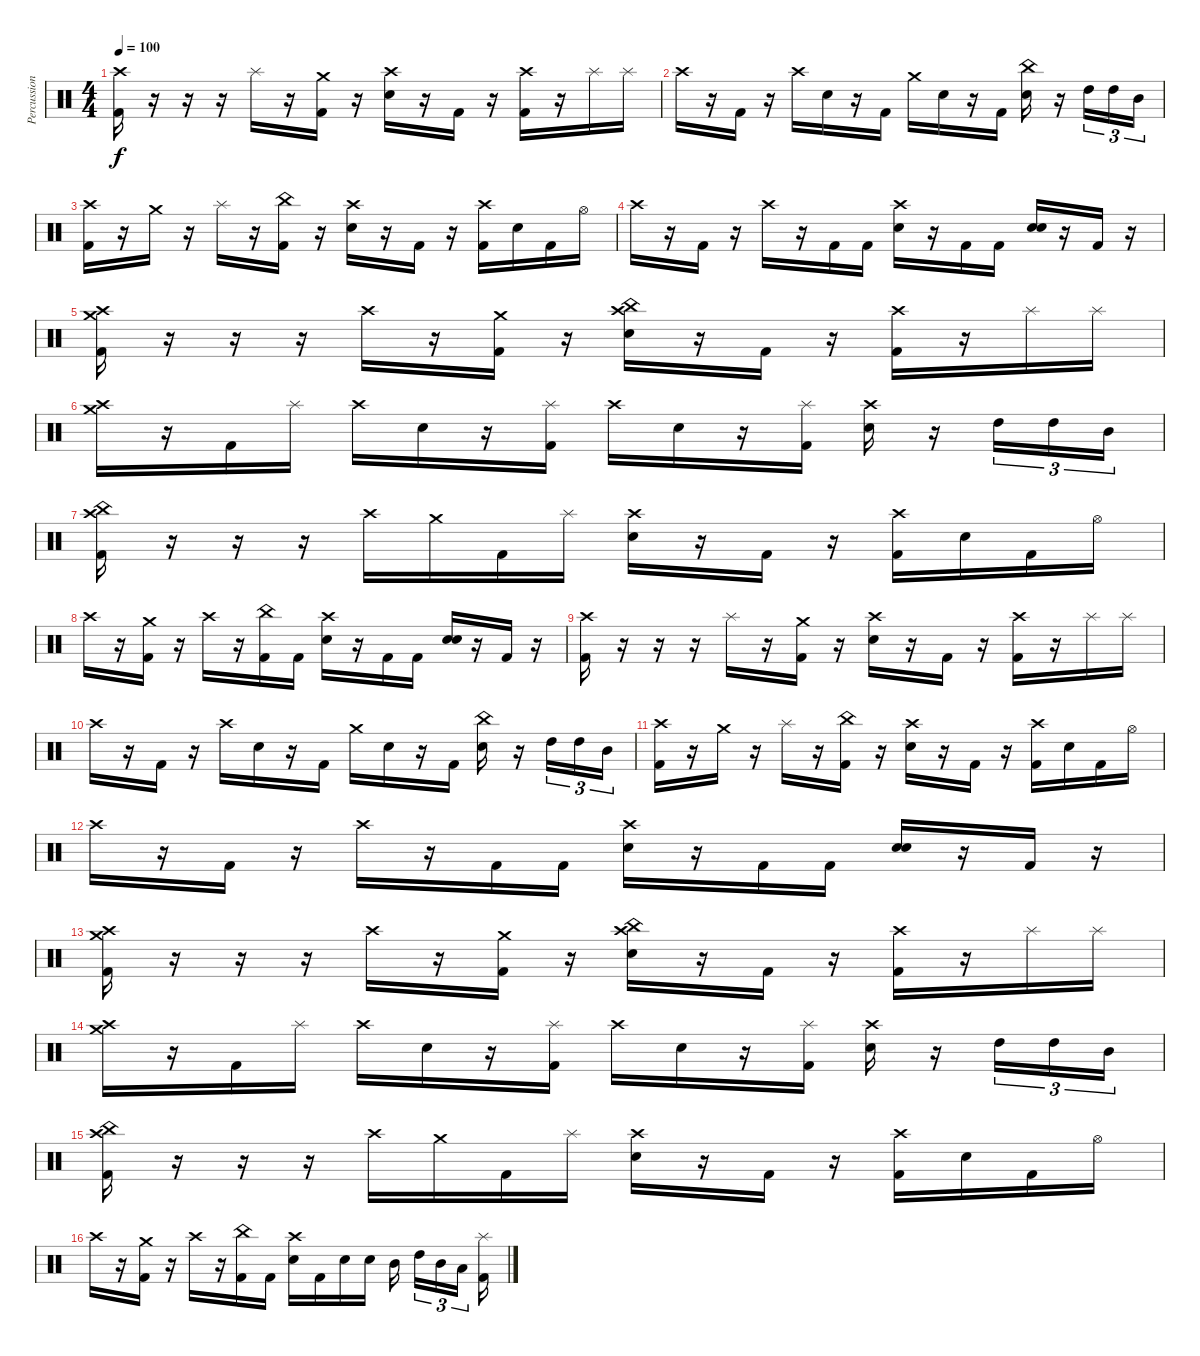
\track ("Percussion" "Percussion") {instrument percussion}
\staff {score}
\articulation defaults
\ts (4 4)
\tempo 100
\clef neutral
\ks c
("Crash high (hit)" "Kick (hit) 2").16{dy f} r.16 r.16 r.16 "Splash (hit)".16 r.16 ("Crash medium (hit)" "Kick (hit) 2").16 r.16 ("Crash high (hit)" "Electric Snare (hit)").16 r.16 "Kick (hit) 2".16 r.16 ("Crash high (hit)" "Kick (hit) 2").16 r.16 "Splash (hit)".16 "Splash (hit)".16 |
"Crash high (hit)".16 r.16 "Kick (hit) 2".16 r.16 "Crash high (hit)".16 "Electric Snare (hit)".16 r.16 "Kick (hit) 2".16 "Crash medium (hit)".16 "Electric Snare (hit)".16 r.16 "Kick (hit) 2".16 ("China (hit)" "Electric Snare (hit)").16 r.16 "High Tom (hit)".16{tu (3 2)} "High Tom (hit)".16{tu (3 2)} "Mid Tom (hit)".16{tu (3 2)} |
("Crash high (hit)" "Kick (hit) 2").16 r.16 "Crash medium (hit)".16 r.16 "Splash (hit)".16 r.16 ("China (hit)" "Kick (hit) 2").16 r.16 ("Crash high (hit)" "Electric Snare (hit)").16 r.16 "Kick (hit) 2".16 r.16 ("Crash high (hit)" "Kick (hit) 2").16 "Electric Snare (hit)".16 "Kick (hit) 2".16 "Hi-Hat (open)".16 |
"Crash high (hit)".16 r.16 "Kick (hit) 2".16 r.16 "Crash high (hit)".16 r.16 "Kick (hit) 2".16 "Kick (hit) 2".16 ("Crash high (hit)" "Electric Snare (hit)").16 r.16 "Kick (hit) 2".16 "Kick (hit) 2".16 ("Electric Snare (hit)" "Electric Snare (hit)").16 r.16 "Kick (hit) 2".16 r.16 |
("Crash high (hit)" "Crash medium (hit)" "Kick (hit) 2").16 r.16 r.16 r.16 "Crash high (hit)".16 r.16 ("Crash medium (hit)" "Kick (hit) 2").16 r.16 ("China (hit)" "Crash high (hit)" "Electric Snare (hit)").16 r.16 "Kick (hit) 2".16 r.16 ("Crash high (hit)" "Kick (hit) 2").16 r.16 "Splash (hit)".16 "Splash (hit)".16 |
("Crash medium (hit)" "Crash high (hit)").16 r.16 "Kick (hit) 2".16 "Splash (hit)".16 "Crash high (hit)".16 "Electric Snare (hit)".16 r.16 ("Splash (hit)" "Kick (hit) 2").16 "Crash high (hit)".16 "Electric Snare (hit)".16 r.16 ("Splash (hit)" "Kick (hit) 2").16 ("Crash high (hit)" "Electric Snare (hit)").16 r.16 "High Tom (hit)".16{tu (3 2)} "High Tom (hit)".16{tu (3 2)} "Mid Tom (hit)".16{tu (3 2)} |
("China (hit)" "Crash high (hit)" "Kick (hit) 2").16 r.16 r.16 r.16 "Crash high (hit)".16 "Crash medium (hit)".16 "Kick (hit) 2".16 "Splash (hit)".16 ("Crash high (hit)" "Electric Snare (hit)").16 r.16 "Kick (hit) 2".16 r.16 ("Crash high (hit)" "Kick (hit) 2").16 "Electric Snare (hit)".16 "Kick (hit) 2".16 "Hi-Hat (open)".16 |
"Crash high (hit)".16 r.16 ("Crash medium (hit)" "Kick (hit) 2").16 r.16 "Crash high (hit)".16 r.16 ("China (hit)" "Kick (hit) 2").16 "Kick (hit) 2".16 ("Crash high (hit)" "Electric Snare (hit)").16 r.16 "Kick (hit) 2".16 "Kick (hit) 2".16 ("Electric Snare (hit)" "Electric Snare (hit)").16 r.16 "Kick (hit) 2".16 r.16 |
("Crash high (hit)" "Kick (hit) 2").16 r.16 r.16 r.16 "Splash (hit)".16 r.16 ("Crash medium (hit)" "Kick (hit) 2").16 r.16 ("Crash high (hit)" "Electric Snare (hit)").16 r.16 "Kick (hit) 2".16 r.16 ("Crash high (hit)" "Kick (hit) 2").16 r.16 "Splash (hit)".16 "Splash (hit)".16 |
"Crash high (hit)".16 r.16 "Kick (hit) 2".16 r.16 "Crash high (hit)".16 "Electric Snare (hit)".16 r.16 "Kick (hit) 2".16 "Crash medium (hit)".16 "Electric Snare (hit)".16 r.16 "Kick (hit) 2".16 ("China (hit)" "Electric Snare (hit)").16 r.16 "High Tom (hit)".16{tu (3 2)} "High Tom (hit)".16{tu (3 2)} "Mid Tom (hit)".16{tu (3 2)} |
("Crash high (hit)" "Kick (hit) 2").16 r.16 "Crash medium (hit)".16 r.16 "Splash (hit)".16 r.16 ("China (hit)" "Kick (hit) 2").16 r.16 ("Crash high (hit)" "Electric Snare (hit)").16 r.16 "Kick (hit) 2".16 r.16 ("Crash high (hit)" "Kick (hit) 2").16 "Electric Snare (hit)".16 "Kick (hit) 2".16 "Hi-Hat (open)".16 |
"Crash high (hit)".16 r.16 "Kick (hit) 2".16 r.16 "Crash high (hit)".16 r.16 "Kick (hit) 2".16 "Kick (hit) 2".16 ("Crash high (hit)" "Electric Snare (hit)").16 r.16 "Kick (hit) 2".16 "Kick (hit) 2".16 ("Electric Snare (hit)" "Electric Snare (hit)").16 r.16 "Kick (hit) 2".16 r.16 |
("Crash high (hit)" "Crash medium (hit)" "Kick (hit) 2").16 r.16 r.16 r.16 "Crash high (hit)".16 r.16 ("Crash medium (hit)" "Kick (hit) 2").16 r.16 ("China (hit)" "Crash high (hit)" "Electric Snare (hit)").16 r.16 "Kick (hit) 2".16 r.16 ("Crash high (hit)" "Kick (hit) 2").16 r.16 "Splash (hit)".16 "Splash (hit)".16 |
("Crash medium (hit)" "Crash high (hit)").16 r.16 "Kick (hit) 2".16 "Splash (hit)".16 "Crash high (hit)".16 "Electric Snare (hit)".16 r.16 ("Splash (hit)" "Kick (hit) 2").16 "Crash high (hit)".16 "Electric Snare (hit)".16 r.16 ("Splash (hit)" "Kick (hit) 2").16 ("Crash high (hit)" "Electric Snare (hit)").16 r.16 "High Tom (hit)".16{tu (3 2)} "High Tom (hit)".16{tu (3 2)} "Mid Tom (hit)".16{tu (3 2)} |
("China (hit)" "Crash high (hit)" "Kick (hit) 2").16 r.16 r.16 r.16 "Crash high (hit)".16 "Crash medium (hit)".16 "Kick (hit) 2".16 "Splash (hit)".16 ("Crash high (hit)" "Electric Snare (hit)").16 r.16 "Kick (hit) 2".16 r.16 ("Crash high (hit)" "Kick (hit) 2").16 "Electric Snare (hit)".16 "Kick (hit) 2".16 "Hi-Hat (open)".16 |
"Crash high (hit)".16 r.16 ("Crash medium (hit)" "Kick (hit) 2").16 r.16 "Crash high (hit)".16 r.16 ("China (hit)" "Kick (hit) 2").16 "Kick (hit) 2".16 ("Crash high (hit)" "Electric Snare (hit)").16 "Kick (hit) 2".16 "Electric Snare (hit)".16 "Electric Snare (hit)".16 "Mid Tom (hit)".16 "High Tom (hit)".16{tu (3 2)} "Mid Tom (hit)".16{tu (3 2)} "Low Tom (hit)".16{tu (3 2)} ("Splash (hit)" "Kick (hit) 2").16
